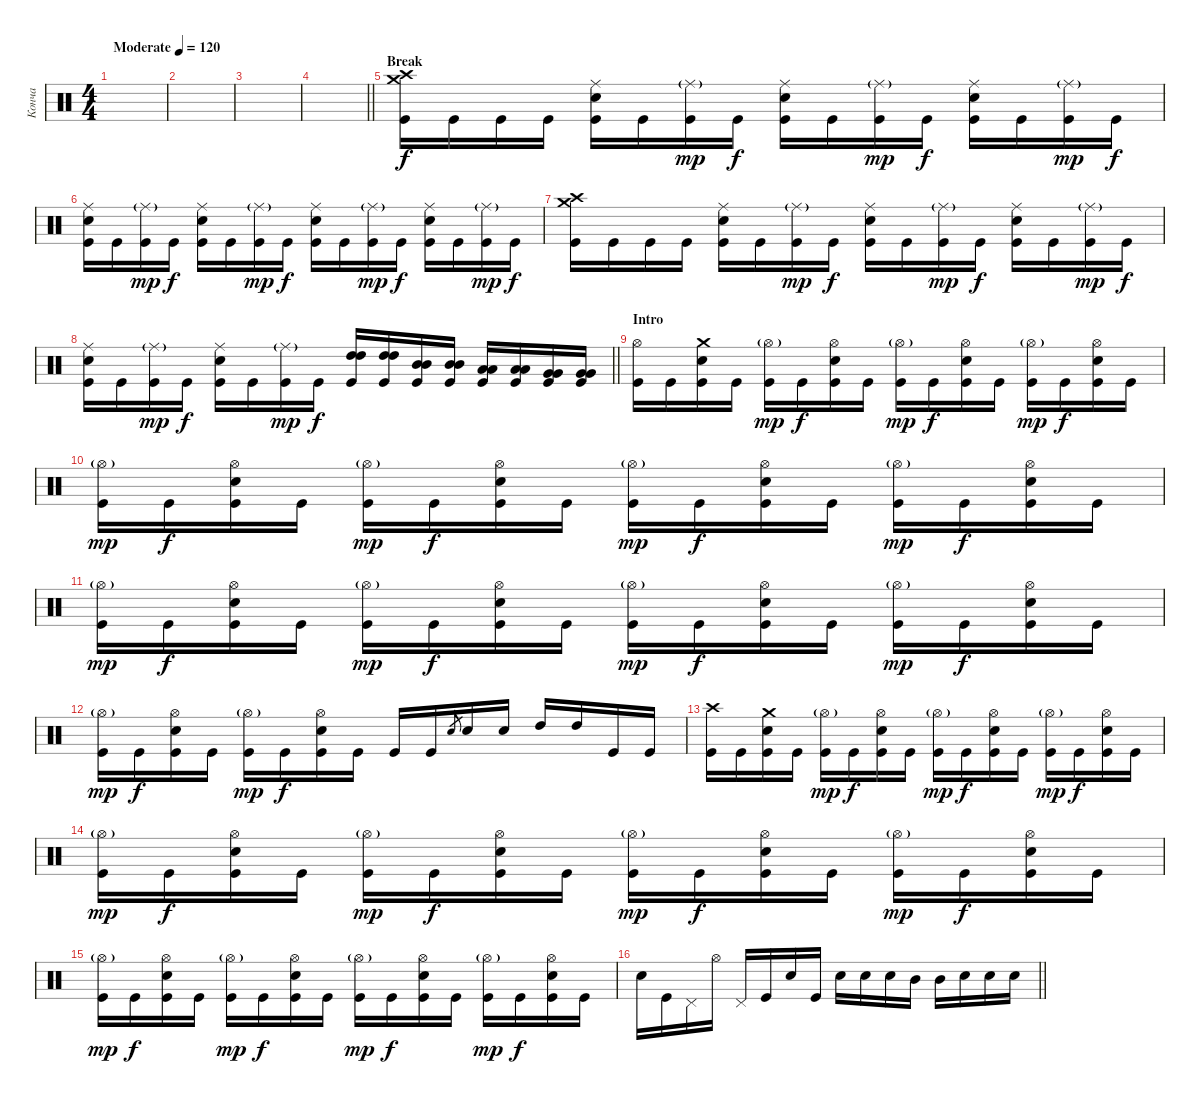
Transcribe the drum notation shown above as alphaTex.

\track ("Конча" "Конча") {instrument percussion}
\staff {score}
\articulation defaults
\ts (4 4)
\tempo (120 "Moderate")
\clef neutral
\ks c
|
|
|
\barLineRight lightlight
|
\section ("" "Break")
("Crash medium (hit)" "Kick (hit)" "Crash high (hit)").16 "Kick (hit)".16 "Kick (hit)".16 "Kick (hit)".16 ("Electric Snare (hit)" "Ride (middle)" "Kick (hit)").16 "Kick (hit)".16 ("Ride (middle)"{g} "Kick (hit)").16{dy mp} "Kick (hit)".16{dy f} ("Electric Snare (hit)" "Ride (middle)" "Kick (hit)").16 "Kick (hit)".16 ("Ride (middle)"{g} "Kick (hit)").16{dy mp} "Kick (hit)".16{dy f} ("Electric Snare (hit)" "Ride (middle)" "Kick (hit)").16 "Kick (hit)".16 ("Ride (middle)"{g} "Kick (hit)").16{dy mp} "Kick (hit)".16{dy f} |
("Electric Snare (hit)" "Ride (middle)" "Kick (hit)").16 "Kick (hit)".16 ("Ride (middle)"{g} "Kick (hit)").16{dy mp} "Kick (hit)".16{dy f} ("Electric Snare (hit)" "Ride (middle)" "Kick (hit)").16 "Kick (hit)".16 ("Ride (middle)"{g} "Kick (hit)").16{dy mp} "Kick (hit)".16{dy f} ("Electric Snare (hit)" "Ride (middle)" "Kick (hit)").16 "Kick (hit)".16 ("Ride (middle)"{g} "Kick (hit)").16{dy mp} "Kick (hit)".16{dy f} ("Electric Snare (hit)" "Ride (middle)" "Kick (hit)").16 "Kick (hit)".16 ("Ride (middle)"{g} "Kick (hit)").16{dy mp} "Kick (hit)".16{dy f} |
("Crash medium (hit)" "Kick (hit)" "Crash high (hit)").16 "Kick (hit)".16 "Kick (hit)".16 "Kick (hit)".16 ("Electric Snare (hit)" "Ride (middle)" "Kick (hit)").16 "Kick (hit)".16 ("Ride (middle)"{g} "Kick (hit)").16{dy mp} "Kick (hit)".16{dy f} ("Electric Snare (hit)" "Ride (middle)" "Kick (hit)").16 "Kick (hit)".16 ("Ride (middle)"{g} "Kick (hit)").16{dy mp} "Kick (hit)".16{dy f} ("Electric Snare (hit)" "Ride (middle)" "Kick (hit)").16 "Kick (hit)".16 ("Ride (middle)"{g} "Kick (hit)").16{dy mp} "Kick (hit)".16{dy f} |
\barLineRight lightlight
("Electric Snare (hit)" "Ride (middle)" "Kick (hit)").16 "Kick (hit)".16 ("Ride (middle)"{g} "Kick (hit)").16{dy mp} "Kick (hit)".16{dy f} ("Electric Snare (hit)" "Ride (middle)" "Kick (hit)").16 "Kick (hit)".16 ("Ride (middle)"{g} "Kick (hit)").16{dy mp} "Kick (hit)".16{dy f} ("High Tom (hit)" "High Tom (hit)" "Kick (hit)").16 ("High Tom (hit)" "High Tom (hit)" "Kick (hit)").16 ("Mid Tom (hit)" "Mid Tom (hit)" "Kick (hit)").16 ("Mid Tom (hit)" "Mid Tom (hit)" "Kick (hit)").16 ("Low Tom (hit)" "Low Tom (hit)" "Kick (hit)").16 ("Low Tom (hit)" "Low Tom (hit)" "Kick (hit)").16 ("Very Low Tom (hit)" "Very Low Tom (hit)" "Kick (hit)").16 ("Very Low Tom (hit)" "Very Low Tom (hit)" "Kick (hit)").16 |
\section ("" "Intro")
("Hi-Hat (open)" "Kick (hit)").16 "Kick (hit)".16 ("Crash medium (hit)" "Kick (hit)" "Electric Snare (hit)").16 "Kick (hit)".16 ("Hi-Hat (open)"{g} "Kick (hit)").16{dy mp} "Kick (hit)".16{dy f} ("Hi-Hat (open)" "Kick (hit)" "Electric Snare (hit)").16 "Kick (hit)".16 ("Hi-Hat (open)"{g} "Kick (hit)").16{dy mp} "Kick (hit)".16{dy f} ("Hi-Hat (open)" "Kick (hit)" "Electric Snare (hit)").16 "Kick (hit)".16 ("Hi-Hat (open)"{g} "Kick (hit)").16{dy mp} "Kick (hit)".16{dy f} ("Hi-Hat (open)" "Kick (hit)" "Electric Snare (hit)").16 "Kick (hit)".16 |
("Hi-Hat (open)"{g} "Kick (hit)").16{dy mp} "Kick (hit)".16{dy f} ("Hi-Hat (open)" "Kick (hit)" "Electric Snare (hit)").16 "Kick (hit)".16 ("Hi-Hat (open)"{g} "Kick (hit)").16{dy mp} "Kick (hit)".16{dy f} ("Hi-Hat (open)" "Kick (hit)" "Electric Snare (hit)").16 "Kick (hit)".16 ("Hi-Hat (open)"{g} "Kick (hit)").16{dy mp} "Kick (hit)".16{dy f} ("Hi-Hat (open)" "Kick (hit)" "Electric Snare (hit)").16 "Kick (hit)".16 ("Hi-Hat (open)"{g} "Kick (hit)").16{dy mp} "Kick (hit)".16{dy f} ("Hi-Hat (open)" "Kick (hit)" "Electric Snare (hit)").16 "Kick (hit)".16 |
("Hi-Hat (open)"{g} "Kick (hit)").16{dy mp} "Kick (hit)".16{dy f} ("Hi-Hat (open)" "Kick (hit)" "Electric Snare (hit)").16 "Kick (hit)".16 ("Hi-Hat (open)"{g} "Kick (hit)").16{dy mp} "Kick (hit)".16{dy f} ("Hi-Hat (open)" "Kick (hit)" "Electric Snare (hit)").16 "Kick (hit)".16 ("Hi-Hat (open)"{g} "Kick (hit)").16{dy mp} "Kick (hit)".16{dy f} ("Hi-Hat (open)" "Kick (hit)" "Electric Snare (hit)").16 "Kick (hit)".16 ("Hi-Hat (open)"{g} "Kick (hit)").16{dy mp} "Kick (hit)".16{dy f} ("Hi-Hat (open)" "Kick (hit)" "Electric Snare (hit)").16 "Kick (hit)".16 |
("Hi-Hat (open)"{g} "Kick (hit)").16{dy mp} "Kick (hit)".16{dy f} ("Hi-Hat (open)" "Kick (hit)" "Electric Snare (hit)").16 "Kick (hit)".16 ("Hi-Hat (open)"{g} "Kick (hit)").16{dy mp} "Kick (hit)".16{dy f} ("Hi-Hat (open)" "Kick (hit)" "Electric Snare (hit)").16 "Kick (hit)".16 "Kick (hit)".16 "Kick (hit)".16 "Electric Snare (hit)".8{gr} "Electric Snare (hit)".16 "Electric Snare (hit)".16 "High Tom (hit)".16 "High Tom (hit)".16 "Kick (hit)".16 "Kick (hit)".16 |
("Crash high (hit)" "Kick (hit)").16 "Kick (hit)".16 ("Crash medium (hit)" "Kick (hit)" "Electric Snare (hit)").16 "Kick (hit)".16 ("Hi-Hat (open)"{g} "Kick (hit)").16{dy mp} "Kick (hit)".16{dy f} ("Hi-Hat (open)" "Kick (hit)" "Electric Snare (hit)").16 "Kick (hit)".16 ("Hi-Hat (open)"{g} "Kick (hit)").16{dy mp} "Kick (hit)".16{dy f} ("Hi-Hat (open)" "Kick (hit)" "Electric Snare (hit)").16 "Kick (hit)".16 ("Hi-Hat (open)"{g} "Kick (hit)").16{dy mp} "Kick (hit)".16{dy f} ("Hi-Hat (open)" "Kick (hit)" "Electric Snare (hit)").16 "Kick (hit)".16 |
("Hi-Hat (open)"{g} "Kick (hit)").16{dy mp} "Kick (hit)".16{dy f} ("Hi-Hat (open)" "Kick (hit)" "Electric Snare (hit)").16 "Kick (hit)".16 ("Hi-Hat (open)"{g} "Kick (hit)").16{dy mp} "Kick (hit)".16{dy f} ("Hi-Hat (open)" "Kick (hit)" "Electric Snare (hit)").16 "Kick (hit)".16 ("Hi-Hat (open)"{g} "Kick (hit)").16{dy mp} "Kick (hit)".16{dy f} ("Hi-Hat (open)" "Kick (hit)" "Electric Snare (hit)").16 "Kick (hit)".16 ("Hi-Hat (open)"{g} "Kick (hit)").16{dy mp} "Kick (hit)".16{dy f} ("Hi-Hat (open)" "Kick (hit)" "Electric Snare (hit)").16 "Kick (hit)".16 |
("Hi-Hat (open)"{g} "Kick (hit)").16{dy mp} "Kick (hit)".16{dy f} ("Hi-Hat (open)" "Kick (hit)" "Electric Snare (hit)").16 "Kick (hit)".16 ("Hi-Hat (open)"{g} "Kick (hit)").16{dy mp} "Kick (hit)".16{dy f} ("Hi-Hat (open)" "Kick (hit)" "Electric Snare (hit)").16 "Kick (hit)".16 ("Hi-Hat (open)"{g} "Kick (hit)").16{dy mp} "Kick (hit)".16{dy f} ("Hi-Hat (open)" "Kick (hit)" "Electric Snare (hit)").16 "Kick (hit)".16 ("Hi-Hat (open)"{g} "Kick (hit)").16{dy mp} "Kick (hit)".16{dy f} ("Hi-Hat (open)" "Kick (hit)" "Electric Snare (hit)").16 "Kick (hit)".16 |
\barLineRight lightlight "Electric Snare (hit)".16 "Kick (hit)".16 "Pedal Hi-Hat (hit)".16 "Hi-Hat (open)".16 "Pedal Hi-Hat (hit)".16 "Kick (hit)".16 "Electric Snare (hit)".16 "Kick (hit)".16 "Electric Snare (hit)".16 "Electric Snare (hit)".16 "Electric Snare (hit)".16 "Mid Tom (hit)".16 "Mid Tom (hit)".16 "Electric Snare (hit)".16 "Electric Snare (hit)".16 "Electric Snare (hit)".16
